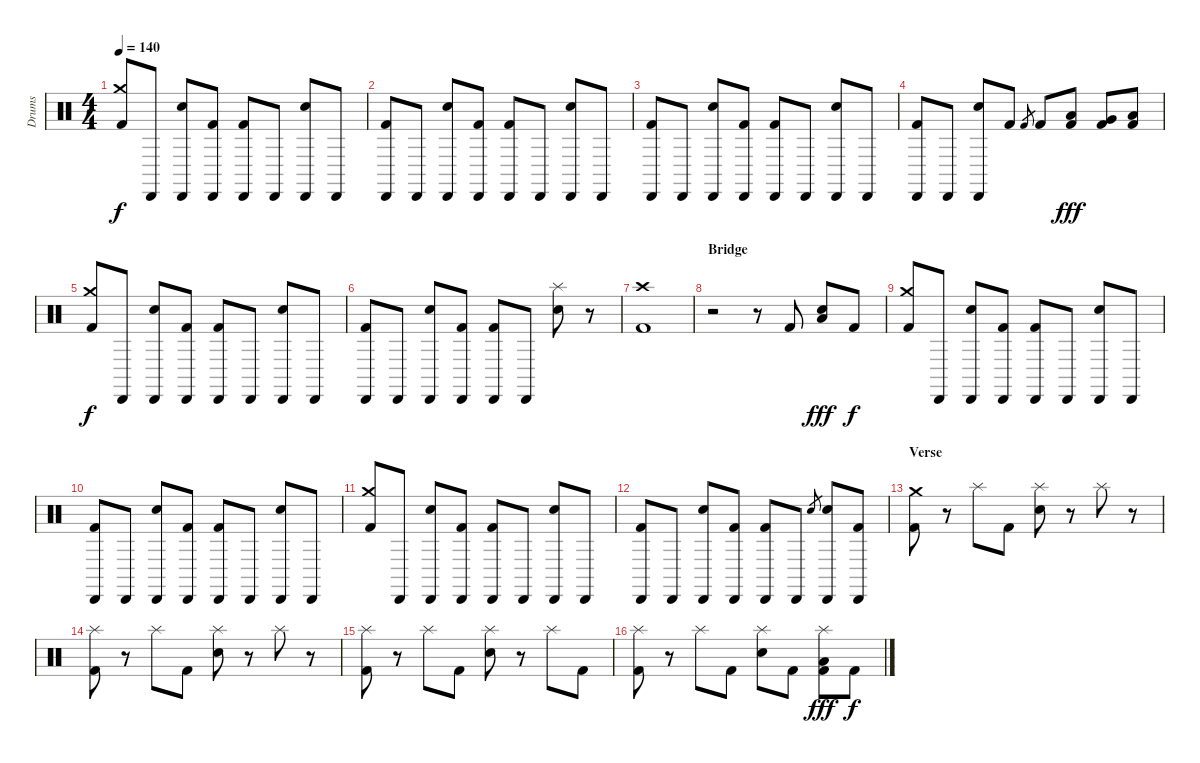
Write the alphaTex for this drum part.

\track ("Drums" "Drums") {instrument percussion}
\staff {score}
\articulation defaults
\ts (4 4)
\tempo 140
\clef neutral
\ks c
("Crash medium (hit)" "Kick (hit) 2").8{dy f} "Cabasa (hit)".8 ("Cabasa (hit)" "Electric Snare (hit)").8 ("Cabasa (hit)" "Kick (hit) 2").8 ("Cabasa (hit)" "Kick (hit) 2").8 "Cabasa (hit)".8 ("Cabasa (hit)" "Electric Snare (hit)").8 "Cabasa (hit)".8 |
("Cabasa (hit)" "Kick (hit) 2").8 "Cabasa (hit)".8 ("Cabasa (hit)" "Electric Snare (hit)").8 ("Cabasa (hit)" "Kick (hit) 2").8 ("Cabasa (hit)" "Kick (hit) 2").8 "Cabasa (hit)".8 ("Cabasa (hit)" "Electric Snare (hit)").8 "Cabasa (hit)".8 |
("Cabasa (hit)" "Kick (hit) 2").8 "Cabasa (hit)".8 ("Cabasa (hit)" "Electric Snare (hit)").8 ("Cabasa (hit)" "Kick (hit) 2").8 ("Cabasa (hit)" "Kick (hit) 2").8 "Cabasa (hit)".8 ("Cabasa (hit)" "Electric Snare (hit)").8 "Cabasa (hit)".8 |
("Cabasa (hit)" "Kick (hit) 2").8 "Cabasa (hit)".8 ("Cabasa (hit)" "Electric Snare (hit)").8 "Kick (hit) 2".8 "Kick (hit) 2".8{gr} "Kick (hit) 2".8 ("Low Tom (hit)" "Kick (hit) 2").8{dy fff} ("Very Low Tom (hit)" "Kick (hit) 2").8 ("Low Floor Tom (hit)" "Kick (hit) 2").8 |
("Crash medium (hit)" "Kick (hit) 2").8{dy f} "Cabasa (hit)".8 ("Cabasa (hit)" "Electric Snare (hit)").8 ("Cabasa (hit)" "Kick (hit) 2").8 ("Cabasa (hit)" "Kick (hit) 2").8 "Cabasa (hit)".8 ("Cabasa (hit)" "Electric Snare (hit)").8 "Cabasa (hit)".8 |
("Cabasa (hit)" "Kick (hit) 2").8 "Cabasa (hit)".8 ("Cabasa (hit)" "Electric Snare (hit)").8 ("Cabasa (hit)" "Kick (hit) 2").8 ("Cabasa (hit)" "Kick (hit) 2").8 "Cabasa (hit)".8 ("Splash (hit)" "Electric Snare (hit)").8 r.8 |
("Crash high (hit)" "Kick (hit) 2").1 |
\section ("" "Bridge")
r.2 r.8 "Kick (hit) 2".8 ("Electric Snare (hit)" "Low Floor Tom (hit)").8{dy fff} "Kick (hit) 2".8{dy f} |
("Crash medium (hit)" "Kick (hit) 2").8 "Cabasa (hit)".8 ("Cabasa (hit)" "Electric Snare (hit)").8 ("Cabasa (hit)" "Kick (hit) 2").8 ("Cabasa (hit)" "Kick (hit) 2").8 "Cabasa (hit)".8 ("Cabasa (hit)" "Electric Snare (hit)").8 "Cabasa (hit)".8 |
("Cabasa (hit)" "Kick (hit) 2").8 "Cabasa (hit)".8 ("Cabasa (hit)" "Electric Snare (hit)").8 ("Cabasa (hit)" "Kick (hit) 2").8 ("Cabasa (hit)" "Kick (hit) 2").8 "Cabasa (hit)".8 ("Cabasa (hit)" "Electric Snare (hit)").8 "Cabasa (hit)".8 |
("Crash medium (hit)" "Kick (hit) 2").8 "Cabasa (hit)".8 ("Cabasa (hit)" "Electric Snare (hit)").8 ("Cabasa (hit)" "Kick (hit) 2").8 ("Cabasa (hit)" "Kick (hit) 2").8 "Cabasa (hit)".8 ("Cabasa (hit)" "Electric Snare (hit)").8 "Cabasa (hit)".8 |
("Cabasa (hit)" "Kick (hit) 2").8 "Cabasa (hit)".8 ("Cabasa (hit)" "Electric Snare (hit)").8 ("Cabasa (hit)" "Kick (hit) 2").8 ("Cabasa (hit)" "Kick (hit) 2").8 "Cabasa (hit)".8 "Electric Snare (hit)".8{gr} ("Cabasa (hit)" "Electric Snare (hit)").8 ("Cabasa (hit)" "Kick (hit) 2").8 |
\section ("" "Verse")
("Crash medium (hit)" "Kick (hit) 2").8 r.8 "Splash (hit)".8 "Kick (hit) 2".8 ("Splash (hit)" "Electric Snare (hit)").8 r.8 "Splash (hit)".8 r.8 |
("Splash (hit)" "Kick (hit) 2").8 r.8 "Splash (hit)".8 "Kick (hit) 2".8 ("Splash (hit)" "Electric Snare (hit)").8 r.8 "Splash (hit)".8 r.8 |
("Splash (hit)" "Kick (hit) 2").8 r.8 "Splash (hit)".8 "Kick (hit) 2".8 ("Splash (hit)" "Electric Snare (hit)").8 r.8 "Splash (hit)".8 "Kick (hit) 2".8 |
("Splash (hit)" "Kick (hit) 2").8 r.8 "Splash (hit)".8 "Kick (hit) 2".8 ("Splash (hit)" "Electric Snare (hit)").8 "Kick (hit) 2".8 ("Splash (hit)" "Low Floor Tom (hit)" "Kick (hit) 2").8{dy fff} "Kick (hit) 2".8{dy f}
